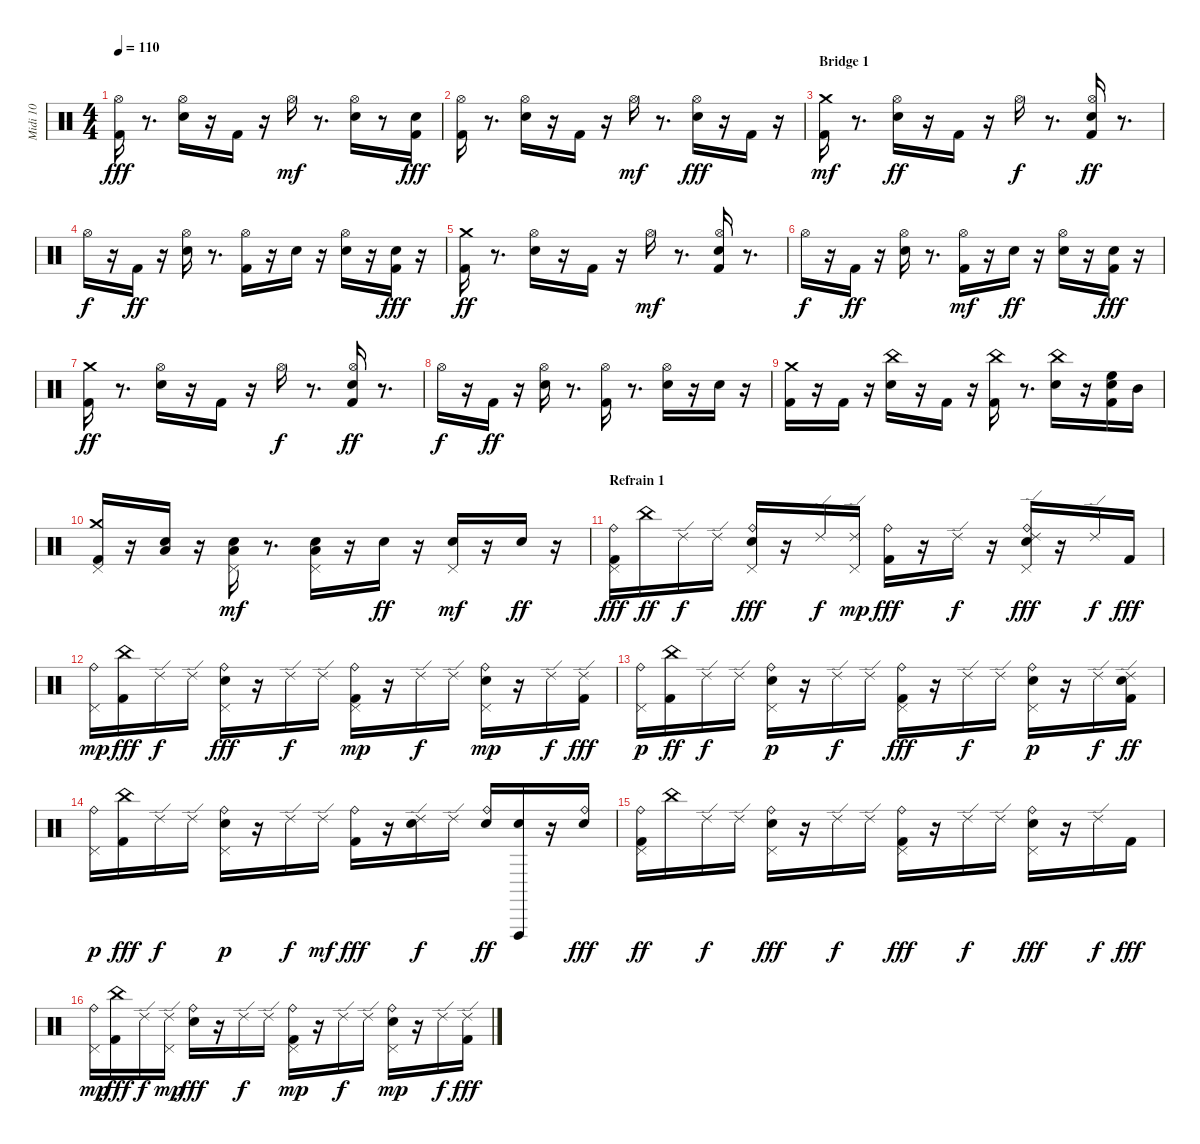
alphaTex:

\track ("Midi 10" "Midi 10") {instrument percussion}
\staff {score}
\articulation defaults
\ts (4 4)
\tempo 110
\clef neutral
\ks c
("Kick (hit) 2" "Hi-Hat (open)").16{dy fff} r.8{d} ("Hi-Hat (open)" "Snare (hit) 2").16 r.16 "Kick (hit) 2".16 r.16 "Hi-Hat (open)".16{dy mf} r.8{d} ("Snare (hit) 2" "Hi-Hat (open)").16 r.8 ("Kick (hit) 2" "Snare (hit) 2").16{dy fff} |
("Kick (hit) 2" "Hi-Hat (open)").16 r.8{d} ("Snare (hit) 2" "Hi-Hat (open)").16 r.16 "Kick (hit) 2".16 r.16 "Hi-Hat (open)".16{dy mf} r.8{d} ("Hi-Hat (open)" "Snare (hit) 2").16{dy fff} r.16 "Kick (hit) 2".16 r.16 |
\section ("" "Bridge 1")
("Kick (hit) 2" "Crash medium (hit)").16{dy mf} r.8{d} ("Snare (hit) 2" "Hi-Hat (open)").16{dy ff} r.16 "Kick (hit) 2".16 r.16 "Hi-Hat (open)".16{dy f} r.8{d} ("Kick (hit) 2" "Snare (hit) 2" "Hi-Hat (open)").16{dy ff} r.8{d} |
"Hi-Hat (open)".16{dy f} r.16 "Kick (hit) 2".16{dy ff} r.16 ("Snare (hit) 2" "Hi-Hat (open)").16 r.8{d} ("Kick (hit) 2" "Hi-Hat (open)").16 r.16 "Snare (hit) 2".16 r.16 ("Snare (hit) 2" "Hi-Hat (open)").16 r.16 ("Kick (hit) 2" "Snare (hit) 2").16{dy fff} r.16 |
("Kick (hit) 2" "Crash medium (hit)").16{dy ff} r.8{d} ("Hi-Hat (open)" "Snare (hit) 2").16 r.16 "Kick (hit) 2".16 r.16 "Hi-Hat (open)".16{dy mf} r.8{d} ("Kick (hit) 2" "Snare (hit) 2" "Hi-Hat (open)").16 r.8{d} |
"Hi-Hat (open)".16{dy f} r.16 "Kick (hit) 2".16{dy ff} r.16 ("Snare (hit) 2" "Hi-Hat (open)").16 r.8{d} ("Kick (hit) 2" "Hi-Hat (open)").16{dy mf} r.16 "Snare (hit) 2".16{dy ff} r.16 ("Snare (hit) 2" "Hi-Hat (open)").16 r.16 ("Kick (hit) 2" "Snare (hit) 2").16{dy fff} r.16 |
("Kick (hit) 2" "Crash medium (hit)").16{dy ff} r.8{d} ("Snare (hit) 2" "Hi-Hat (open)").16 r.16 "Kick (hit) 2".16 r.16 "Hi-Hat (open)".16{dy f} r.8{d} ("Snare (hit) 2" "Kick (hit) 2" "Hi-Hat (open)").16{dy ff} r.8{d} |
"Hi-Hat (open)".16{dy f} r.16 "Kick (hit) 2".16{dy ff} r.16 ("Hi-Hat (open)" "Snare (hit) 2").16 r.8{d} ("Kick (hit) 2" "Hi-Hat (open)").16 r.8{d} ("Snare (hit) 2" "Hi-Hat (open)").16 r.16 "Snare (hit) 2".16 r.16 |
("Kick (hit) 2" "Crash medium (hit)").16 r.16 "Kick (hit) 2".16 r.16 ("Snare (hit) 2" "China (hit)").16 r.16 "Kick (hit) 2".16 r.16 ("Kick (hit) 2" "China (hit)").16 r.8{d} ("China (hit)" "Snare (hit) 2").16 r.16 ("Kick (hit) 2" "Snare (hit) 2" "High Floor Tom (hit)").16 "Mid Tom (hit)".16 |
("Pedal Hi-Hat (hit)" "Kick (hit) 2" "Crash medium (hit)").16 r.16 ("Snare (hit) 2" "Low Tom (hit)").16 r.16 ("Snare (hit) 2" "Low Tom (hit)" "Pedal Hi-Hat (hit)").16{dy mf} r.8{d} ("Snare (hit) 2" "Low Tom (hit)" "Pedal Hi-Hat (hit)").16 r.16 "Snare (hit) 2".16{dy ff} r.16 ("Snare (hit) 2" "Pedal Hi-Hat (hit)").16{dy mf} r.16 "Snare (hit) 2".16{dy ff} r.16 |
\section ("" "Refrain 1")
("Pedal Hi-Hat (hit)" "Ride (bell)" "Kick (hit) 2").16{dy fff} "China (hit)".16{dy ff} "Ride (edge) 2".16{dy f} "Ride (edge) 2".16 ("Ride (bell)" "Pedal Hi-Hat (hit)" "Snare (hit) 2").16{dy fff} r.16 "Ride (edge) 2".16{dy f} ("Ride (edge) 2" "Pedal Hi-Hat (hit)").16{dy mp} ("Ride (bell)" "Kick (hit) 2").16{dy fff} r.16 "Ride (edge) 2".16{dy f} r.16 ("Ride (edge) 2" "Ride (bell)" "Pedal Hi-Hat (hit)" "Snare (hit) 2").16{dy fff} r.16 "Ride (edge) 2".16{dy f} "Kick (hit) 2".16{dy fff} |
("Ride (bell)" "Pedal Hi-Hat (hit)").16{dy mp} ("China (hit)" "Kick (hit) 2").16{dy fff} "Ride (edge) 2".16{dy f} "Ride (edge) 2".16 ("Pedal Hi-Hat (hit)" "Ride (bell)" "Snare (hit) 2").16{dy fff} r.16 "Ride (edge) 2".16{dy f} "Ride (edge) 2".16 ("Ride (bell)" "Kick (hit) 2" "Pedal Hi-Hat (hit)").16{dy mp} r.16 "Ride (edge) 2".16{dy f} "Ride (edge) 2".16 ("Ride (bell)" "Snare (hit) 2" "Pedal Hi-Hat (hit)").16{dy mp} r.16 "Ride (edge) 2".16{dy f} ("Ride (edge) 2" "Kick (hit) 2").16{dy fff} |
("Ride (bell)" "Pedal Hi-Hat (hit)").16{dy p} ("Kick (hit) 2" "China (hit)").16{dy ff} "Ride (edge) 2".16{dy f} "Ride (edge) 2".16 ("Ride (bell)" "Snare (hit) 2" "Pedal Hi-Hat (hit)").16{dy p} r.16 "Ride (edge) 2".16{dy f} "Ride (edge) 2".16 ("Ride (bell)" "Pedal Hi-Hat (hit)" "Kick (hit) 2").16{dy fff} r.16 "Ride (edge) 2".16{dy f} "Ride (edge) 2".16 ("Ride (bell)" "Snare (hit) 2" "Pedal Hi-Hat (hit)").16{dy p} r.16 "Ride (edge) 2".16{dy f} ("Ride (edge) 2" "Kick (hit) 2" "Snare (hit) 2").16{dy ff} |
("Ride (bell)" "Pedal Hi-Hat (hit)").16{dy p} ("China (hit)" "Kick (hit) 2").16{dy fff} "Ride (edge) 2".16{dy f} "Ride (edge) 2".16 ("Ride (bell)" "Snare (hit) 2" "Pedal Hi-Hat (hit)").16{dy p} r.16 "Ride (edge) 2".16{dy f} "Ride (edge) 2".16{dy mf} ("Ride (bell)" "Kick (hit) 2").16{dy fff} r.16 ("Ride (edge) 2" "Snare (hit) 2").16{dy f} "Ride (edge) 2".16 ("Ride (bell)" "Snare (hit) 2").16{dy ff} ("Vibraslap (hit)" "Snare (hit) 2").16 r.16 ("Ride (bell)" "Snare (hit) 2").16{dy fff} |
("Pedal Hi-Hat (hit)" "Kick (hit) 2" "Ride (bell)").16{dy ff} "China (hit)".16 "Ride (edge) 2".16{dy f} "Ride (edge) 2".16 ("Ride (bell)" "Pedal Hi-Hat (hit)" "Snare (hit) 2").16{dy fff} r.16 "Ride (edge) 2".16{dy f} "Ride (edge) 2".16 ("Pedal Hi-Hat (hit)" "Ride (bell)" "Kick (hit) 2").16{dy fff} r.16 "Ride (edge) 2".16{dy f} "Ride (edge) 2".16 ("Ride (bell)" "Pedal Hi-Hat (hit)" "Snare (hit) 2").16{dy fff} r.16 "Ride (edge) 2".16{dy f} "Kick (hit) 2".16{dy fff} |
("Ride (bell)" "Pedal Hi-Hat (hit)").16{dy mp} ("China (hit)" "Kick (hit) 2").16{dy fff} "Ride (edge) 2".16{dy f} ("Ride (edge) 2" "Pedal Hi-Hat (hit)").16{dy mp} ("Ride (bell)" "Snare (hit) 2").16{dy fff} r.16 "Ride (edge) 2".16{dy f} "Ride (edge) 2".16 ("Ride (bell)" "Kick (hit) 2" "Pedal Hi-Hat (hit)").16{dy mp} r.16 "Ride (edge) 2".16{dy f} "Ride (edge) 2".16 ("Ride (bell)" "Snare (hit) 2" "Pedal Hi-Hat (hit)").16{dy mp} r.16 "Ride (edge) 2".16{dy f} ("Ride (edge) 2" "Kick (hit) 2").16{dy fff}
